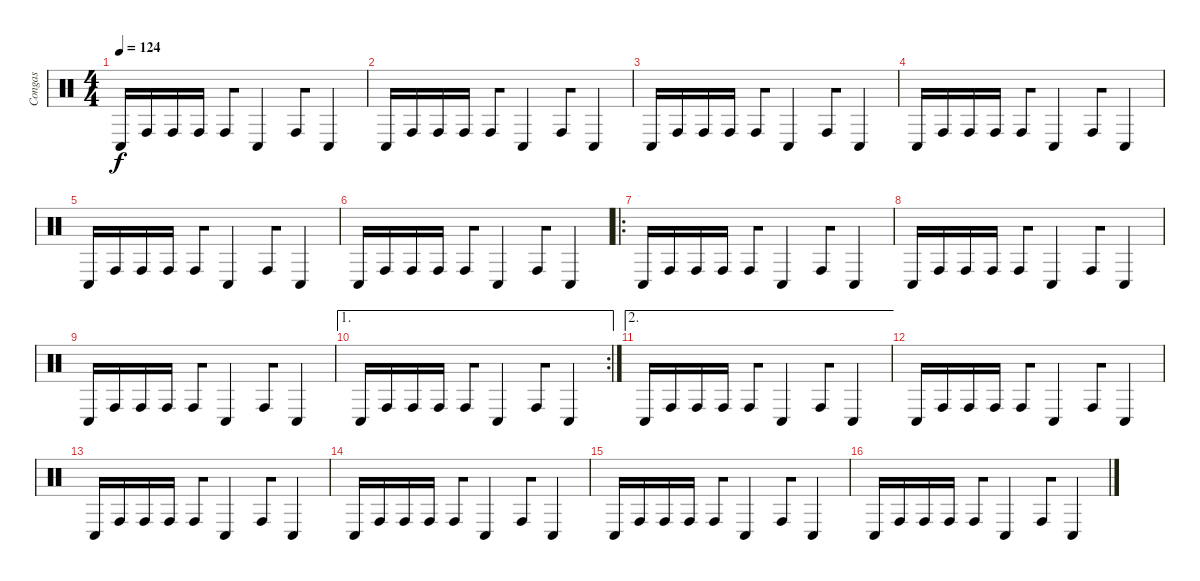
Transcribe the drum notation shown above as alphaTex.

\track ("Congas" "Congas") {instrument percussion bank 2}
\staff {score}
\articulation defaults
\ts (4 4)
\tempo 124
\clef neutral
\ks c "Conga low (hit)".16{dy f} "Conga high (hit)".16 "Conga high (hit)".16 "Conga high (hit)".16 "Conga high (hit)".8{beam merge} "Conga low (hit)".4 "Conga high (hit)".8{beam merge} "Conga low (hit)".4
|
"Conga low (hit)".16 "Conga high (hit)".16 "Conga high (hit)".16 "Conga high (hit)".16 "Conga high (hit)".8{beam merge} "Conga low (hit)".4 "Conga high (hit)".8{beam merge} "Conga low (hit)".4 |
"Conga low (hit)".16 "Conga high (hit)".16 "Conga high (hit)".16 "Conga high (hit)".16 "Conga high (hit)".8{beam merge} "Conga low (hit)".4 "Conga high (hit)".8{beam merge} "Conga low (hit)".4 |
"Conga low (hit)".16 "Conga high (hit)".16 "Conga high (hit)".16 "Conga high (hit)".16 "Conga high (hit)".8{beam merge} "Conga low (hit)".4 "Conga high (hit)".8{beam merge} "Conga low (hit)".4 |
"Conga low (hit)".16 "Conga high (hit)".16 "Conga high (hit)".16 "Conga high (hit)".16 "Conga high (hit)".8{beam merge} "Conga low (hit)".4 "Conga high (hit)".8{beam merge} "Conga low (hit)".4 |
"Conga low (hit)".16 "Conga high (hit)".16 "Conga high (hit)".16 "Conga high (hit)".16 "Conga high (hit)".8{beam merge} "Conga low (hit)".4 "Conga high (hit)".8{beam merge} "Conga low (hit)".4 |
\ro "Conga low (hit)".16 "Conga high (hit)".16 "Conga high (hit)".16 "Conga high (hit)".16 "Conga high (hit)".8{beam merge} "Conga low (hit)".4 "Conga high (hit)".8{beam merge} "Conga low (hit)".4
|
"Conga low (hit)".16 "Conga high (hit)".16 "Conga high (hit)".16 "Conga high (hit)".16 "Conga high (hit)".8{beam merge} "Conga low (hit)".4 "Conga high (hit)".8{beam merge} "Conga low (hit)".4 |
"Conga low (hit)".16 "Conga high (hit)".16 "Conga high (hit)".16 "Conga high (hit)".16 "Conga high (hit)".8{beam merge} "Conga low (hit)".4 "Conga high (hit)".8{beam merge} "Conga low (hit)".4 |
\ae 1
\rc 2 "Conga low (hit)".16 "Conga high (hit)".16 "Conga high (hit)".16 "Conga high (hit)".16 "Conga high (hit)".8{beam merge} "Conga low (hit)".4 "Conga high (hit)".8{beam merge} "Conga low (hit)".4
|
\ae 2 "Conga low (hit)".16 "Conga high (hit)".16 "Conga high (hit)".16 "Conga high (hit)".16 "Conga high (hit)".8{beam merge} "Conga low (hit)".4 "Conga high (hit)".8{beam merge} "Conga low (hit)".4
|
"Conga low (hit)".16 "Conga high (hit)".16 "Conga high (hit)".16 "Conga high (hit)".16 "Conga high (hit)".8{beam merge} "Conga low (hit)".4 "Conga high (hit)".8{beam merge} "Conga low (hit)".4 |
"Conga low (hit)".16 "Conga high (hit)".16 "Conga high (hit)".16 "Conga high (hit)".16 "Conga high (hit)".8{beam merge} "Conga low (hit)".4 "Conga high (hit)".8{beam merge} "Conga low (hit)".4 |
"Conga low (hit)".16 "Conga high (hit)".16 "Conga high (hit)".16 "Conga high (hit)".16 "Conga high (hit)".8{beam merge} "Conga low (hit)".4 "Conga high (hit)".8{beam merge} "Conga low (hit)".4 |
"Conga low (hit)".16 "Conga high (hit)".16 "Conga high (hit)".16 "Conga high (hit)".16 "Conga high (hit)".8{beam merge} "Conga low (hit)".4 "Conga high (hit)".8{beam merge} "Conga low (hit)".4 |
"Conga low (hit)".16 "Conga high (hit)".16 "Conga high (hit)".16 "Conga high (hit)".16 "Conga high (hit)".8{beam merge} "Conga low (hit)".4 "Conga high (hit)".8{beam merge} "Conga low (hit)".4
